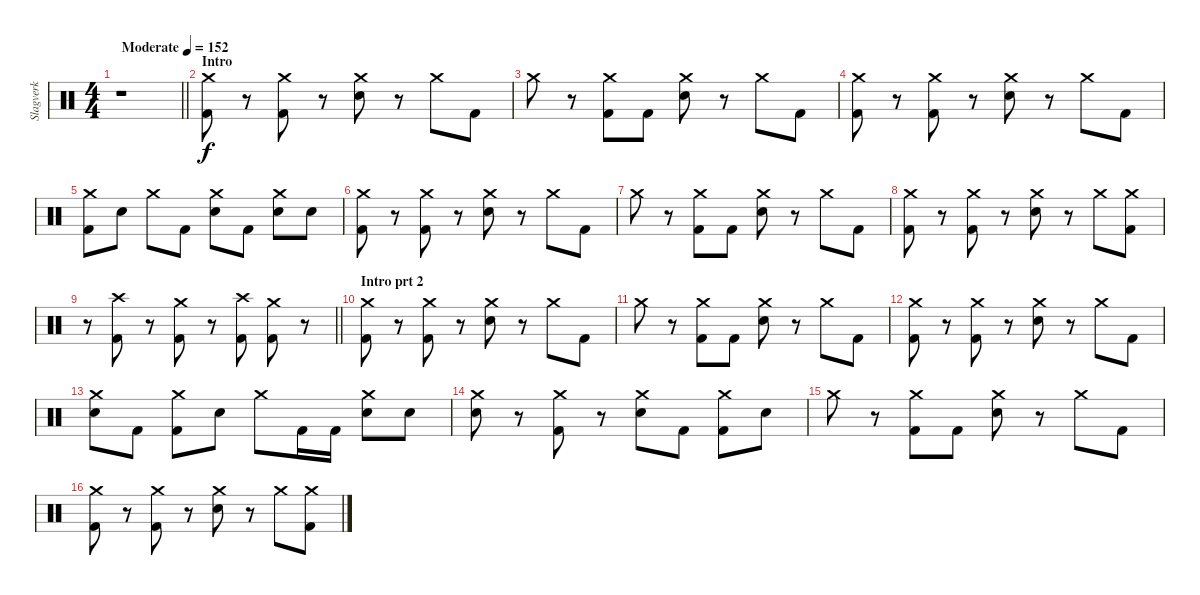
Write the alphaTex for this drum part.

\track ("Slagverk" "Slagverk") {instrument percussion}
\staff
\articulation defaults
\ts (4 4)
\tempo (152 "Moderate")
\clef neutral
\barLineRight lightlight
\ks c
r.1{dy f} |
\section ("" "Intro")
("Crash medium (hit)" "Kick (hit) 2").8 r.8 ("Crash medium (hit)" "Kick (hit) 2").8 r.8 ("Crash medium (hit)" "Electric Snare (hit)").8 r.8 "Crash medium (hit)".8 "Kick (hit) 2".8 |
"Crash medium (hit)".8 r.8 ("Crash medium (hit)" "Kick (hit) 2").8 "Kick (hit) 2".8 ("Crash medium (hit)" "Electric Snare (hit)").8 r.8 "Crash medium (hit)".8 "Kick (hit) 2".8 |
("Crash medium (hit)" "Kick (hit) 2").8 r.8 ("Crash medium (hit)" "Kick (hit) 2").8 r.8 ("Crash medium (hit)" "Electric Snare (hit)").8 r.8 "Crash medium (hit)".8 "Kick (hit) 2".8 |
("Crash medium (hit)" "Kick (hit) 2").8 "Electric Snare (hit)".8 "Crash medium (hit)".8 "Kick (hit) 2".8 ("Crash medium (hit)" "Electric Snare (hit)").8 "Kick (hit) 2".8 ("Crash medium (hit)" "Electric Snare (hit)").8 "Electric Snare (hit)".8 |
("Crash medium (hit)" "Kick (hit) 2").8 r.8 ("Crash medium (hit)" "Kick (hit) 2").8 r.8 ("Crash medium (hit)" "Electric Snare (hit)").8 r.8 "Crash medium (hit)".8 "Kick (hit) 2".8 |
"Crash medium (hit)".8 r.8 ("Crash medium (hit)" "Kick (hit) 2").8 "Kick (hit) 2".8 ("Crash medium (hit)" "Electric Snare (hit)").8 r.8 "Crash medium (hit)".8 "Kick (hit) 2".8 |
("Crash medium (hit)" "Kick (hit) 2").8 r.8 ("Crash medium (hit)" "Kick (hit) 2").8 r.8 ("Crash medium (hit)" "Electric Snare (hit)").8 r.8 "Crash medium (hit)".8 ("Crash medium (hit)" "Kick (hit) 2").8 |
\barLineRight lightlight
r.8 ("Crash high (hit)" "Kick (hit) 2").8 r.8 ("Crash medium (hit)" "Kick (hit) 2").8 r.8 ("Crash high (hit)" "Kick (hit) 2").8 ("Crash medium (hit)" "Kick (hit) 2").8 r.8 |
\section ("" "Intro prt 2")
("Crash medium (hit)" "Kick (hit) 2").8 r.8 ("Crash medium (hit)" "Kick (hit) 2").8 r.8 ("Crash medium (hit)" "Electric Snare (hit)").8 r.8 "Crash medium (hit)".8 "Kick (hit) 2".8 |
"Crash medium (hit)".8 r.8 ("Crash medium (hit)" "Kick (hit) 2").8 "Kick (hit) 2".8 ("Crash medium (hit)" "Electric Snare (hit)").8 r.8 "Crash medium (hit)".8 "Kick (hit) 2".8 |
("Crash medium (hit)" "Kick (hit) 2").8 r.8 ("Crash medium (hit)" "Kick (hit) 2").8 r.8 ("Crash medium (hit)" "Electric Snare (hit)").8 r.8 "Crash medium (hit)".8 "Kick (hit) 2".8 |
("Crash medium (hit)" "Electric Snare (hit)").8 "Kick (hit) 2".8 ("Crash medium (hit)" "Kick (hit) 2").8 "Electric Snare (hit)".8 "Crash medium (hit)".8 "Kick (hit) 2".16 "Kick (hit) 2".16 ("Crash medium (hit)" "Electric Snare (hit)").8 "Electric Snare (hit)".8 |
("Crash medium (hit)" "Electric Snare (hit)").8 r.8 ("Crash medium (hit)" "Kick (hit) 2").8 r.8 ("Crash medium (hit)" "Electric Snare (hit)").8 "Kick (hit) 2".8 ("Crash medium (hit)" "Kick (hit) 2").8 "Electric Snare (hit)".8 |
"Crash medium (hit)".8 r.8 ("Crash medium (hit)" "Kick (hit) 2").8 "Kick (hit) 2".8 ("Crash medium (hit)" "Electric Snare (hit)").8 r.8 "Crash medium (hit)".8 "Kick (hit) 2".8 |
("Crash medium (hit)" "Kick (hit) 2").8 r.8 ("Crash medium (hit)" "Kick (hit) 2").8 r.8 ("Crash medium (hit)" "Electric Snare (hit)").8 r.8 "Crash medium (hit)".8 ("Crash medium (hit)" "Kick (hit) 2").8
